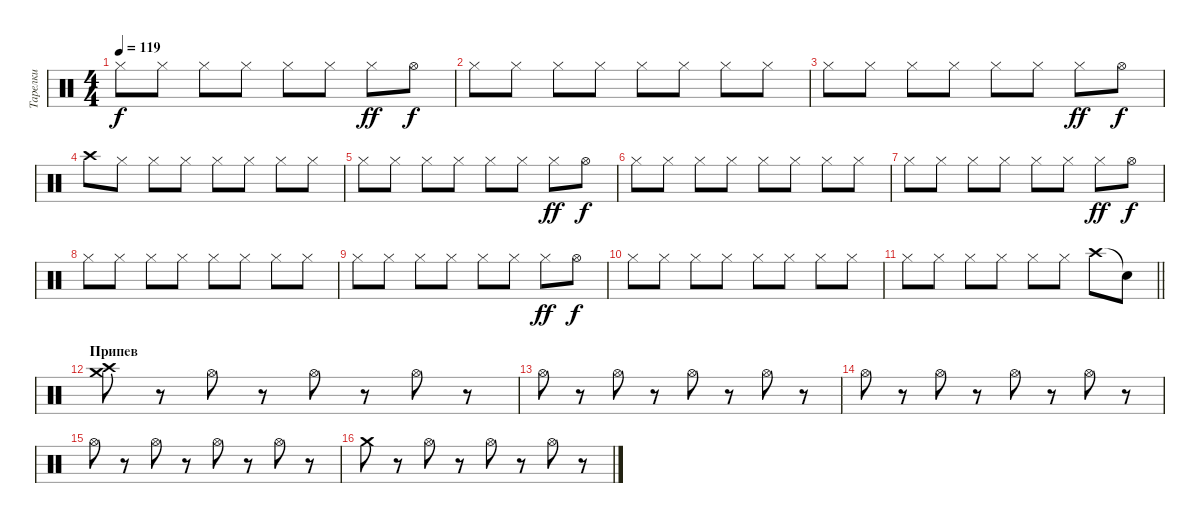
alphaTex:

\track ("Тарелки" "Тарелки") {instrument percussion}
\staff {score}
\articulation defaults
\ts (4 4)
\tempo 119
\clef neutral
\ks c "Hi-Hat (closed)".8{dy f} "Hi-Hat (closed)".8 "Hi-Hat (closed)".8 "Hi-Hat (closed)".8 "Hi-Hat (closed)".8 "Hi-Hat (closed)".8 "Hi-Hat (closed)".8{dy ff} "Hi-Hat (open)".8{dy f}
|
"Hi-Hat (closed)".8 "Hi-Hat (closed)".8 "Hi-Hat (closed)".8 "Hi-Hat (closed)".8 "Hi-Hat (closed)".8 "Hi-Hat (closed)".8 "Hi-Hat (closed)".8 "Hi-Hat (closed)".8 |
"Hi-Hat (closed)".8 "Hi-Hat (closed)".8 "Hi-Hat (closed)".8 "Hi-Hat (closed)".8 "Hi-Hat (closed)".8 "Hi-Hat (closed)".8 "Hi-Hat (closed)".8{dy ff} "Hi-Hat (open)".8{dy f} |
"Crash high (hit)".8 "Hi-Hat (closed)".8 "Hi-Hat (closed)".8 "Hi-Hat (closed)".8 "Hi-Hat (closed)".8 "Hi-Hat (closed)".8 "Hi-Hat (closed)".8 "Hi-Hat (closed)".8 |
"Hi-Hat (closed)".8 "Hi-Hat (closed)".8 "Hi-Hat (closed)".8 "Hi-Hat (closed)".8 "Hi-Hat (closed)".8 "Hi-Hat (closed)".8 "Hi-Hat (closed)".8{dy ff} "Hi-Hat (open)".8{dy f} |
"Hi-Hat (closed)".8 "Hi-Hat (closed)".8 "Hi-Hat (closed)".8 "Hi-Hat (closed)".8 "Hi-Hat (closed)".8 "Hi-Hat (closed)".8 "Hi-Hat (closed)".8 "Hi-Hat (closed)".8 |
"Hi-Hat (closed)".8 "Hi-Hat (closed)".8 "Hi-Hat (closed)".8 "Hi-Hat (closed)".8 "Hi-Hat (closed)".8 "Hi-Hat (closed)".8 "Hi-Hat (closed)".8{dy ff} "Hi-Hat (open)".8{dy f} |
"Hi-Hat (closed)".8 "Hi-Hat (closed)".8 "Hi-Hat (closed)".8 "Hi-Hat (closed)".8 "Hi-Hat (closed)".8 "Hi-Hat (closed)".8 "Hi-Hat (closed)".8 "Hi-Hat (closed)".8 |
"Hi-Hat (closed)".8 "Hi-Hat (closed)".8 "Hi-Hat (closed)".8 "Hi-Hat (closed)".8 "Hi-Hat (closed)".8 "Hi-Hat (closed)".8 "Hi-Hat (closed)".8{dy ff} "Hi-Hat (open)".8{dy f} |
"Hi-Hat (closed)".8 "Hi-Hat (closed)".8 "Hi-Hat (closed)".8 "Hi-Hat (closed)".8 "Hi-Hat (closed)".8 "Hi-Hat (closed)".8 "Hi-Hat (closed)".8 "Hi-Hat (closed)".8 |
\barLineRight lightlight "Hi-Hat (closed)".8 "Hi-Hat (closed)".8 "Hi-Hat (closed)".8 "Hi-Hat (closed)".8 "Hi-Hat (closed)".8 "Hi-Hat (closed)".8 "Crash high (hit)".8 "Snare (hit)"{t}.8
|
\section ("" "Припев")
("Crash high (hit)" "Crash medium (hit)").8 r.8 "Hi-Hat (open)".8 r.8 "Hi-Hat (open)".8 r.8 "Hi-Hat (open)".8 r.8 |
"Hi-Hat (open)".8 r.8 "Hi-Hat (open)".8 r.8 "Hi-Hat (open)".8 r.8 "Hi-Hat (open)".8 r.8 |
"Hi-Hat (open)".8 r.8 "Hi-Hat (open)".8 r.8 "Hi-Hat (open)".8 r.8 "Hi-Hat (open)".8 r.8 |
"Hi-Hat (open)".8 r.8 "Hi-Hat (open)".8 r.8 "Hi-Hat (open)".8 r.8 "Hi-Hat (open)".8 r.8 |
"Crash medium (hit)".8 r.8 "Hi-Hat (open)".8 r.8 "Hi-Hat (open)".8 r.8 "Hi-Hat (open)".8 r.8
